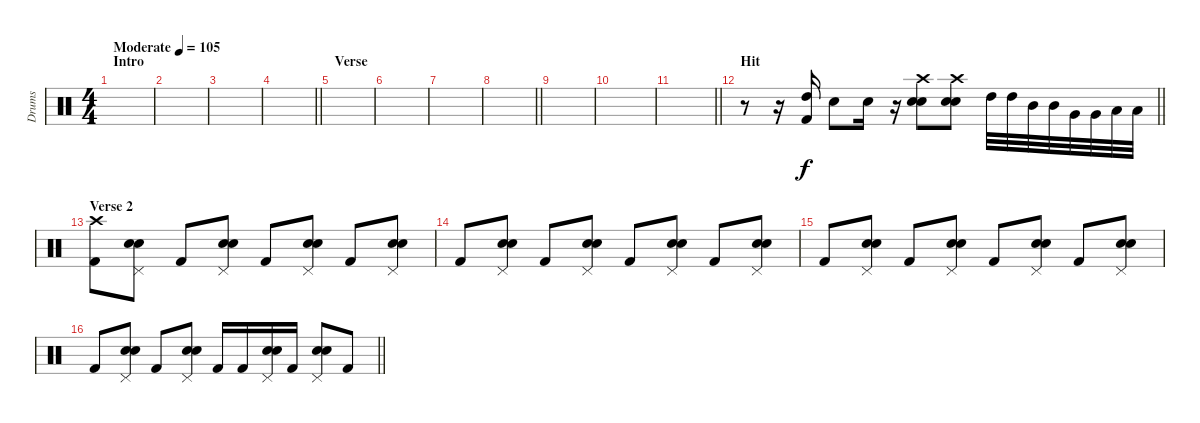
\track ("Drums" "Drums") {instrument percussion}
\staff {score}
\articulation defaults
\ts (4 4)
\section ("" "Intro")
\tempo (105 "Moderate")
\clef neutral
\ks c
|
|
|
\barLineRight lightlight
|
\section ("" "Verse")
|
|
|
\barLineRight lightlight
|
|
|
\barLineRight lightlight
|
\section ("" "Hit")
\barLineRight lightlight
r.8 r.16 ("High Tom (hit)" "Kick (hit) 2").16 "Electric Snare (hit)".8 "Electric Snare (hit)".16 r.16 ("Crash high (hit)" "Electric Snare (hit)" "Hand Clap (hit)").8 ("Crash high (hit)" "Electric Snare (hit)" "Hand Clap (hit)").8 "High Tom (hit)".32 "High Tom (hit)".32 "Mid Tom (hit)".32 "Mid Tom (hit)".32 "Very Low Tom (hit)".32 "Very Low Tom (hit)".32 "Low Floor Tom (hit)".32 "Low Floor Tom (hit)".32 |
\section ("" "Verse 2")
("Crash high (hit)" "Kick (hit) 2").8 ("Pedal Hi-Hat (hit)" "Electric Snare (hit)" "Hand Clap (hit)").8 "Kick (hit) 2".8 ("Pedal Hi-Hat (hit)" "Electric Snare (hit)" "Hand Clap (hit)").8 "Kick (hit) 2".8 ("Pedal Hi-Hat (hit)" "Electric Snare (hit)" "Hand Clap (hit)").8 "Kick (hit) 2".8 ("Pedal Hi-Hat (hit)" "Electric Snare (hit)" "Hand Clap (hit)").8 |
"Kick (hit) 2".8 ("Pedal Hi-Hat (hit)" "Electric Snare (hit)" "Hand Clap (hit)").8 "Kick (hit) 2".8 ("Pedal Hi-Hat (hit)" "Electric Snare (hit)" "Hand Clap (hit)").8 "Kick (hit) 2".8 ("Pedal Hi-Hat (hit)" "Electric Snare (hit)" "Hand Clap (hit)").8 "Kick (hit) 2".8 ("Pedal Hi-Hat (hit)" "Electric Snare (hit)" "Hand Clap (hit)").8 |
"Kick (hit) 2".8 ("Pedal Hi-Hat (hit)" "Electric Snare (hit)" "Hand Clap (hit)").8 "Kick (hit) 2".8 ("Pedal Hi-Hat (hit)" "Electric Snare (hit)" "Hand Clap (hit)").8 "Kick (hit) 2".8 ("Pedal Hi-Hat (hit)" "Electric Snare (hit)" "Hand Clap (hit)").8 "Kick (hit) 2".8 ("Pedal Hi-Hat (hit)" "Electric Snare (hit)" "Hand Clap (hit)").8 |
\barLineRight lightlight "Kick (hit) 2".8
("Pedal Hi-Hat (hit)" "Electric Snare (hit)" "Hand Clap (hit)").8 "Kick (hit) 2".8 ("Pedal Hi-Hat (hit)" "Electric Snare (hit)" "Hand Clap (hit)").8 "Kick (hit) 2".16 "Kick (hit) 2".16 ("Pedal Hi-Hat (hit)" "Electric Snare (hit)" "Hand Clap (hit)").16 "Kick (hit) 2".16 ("Pedal Hi-Hat (hit)" "Electric Snare (hit)" "Hand Clap (hit)").8 "Kick (hit) 2".8
